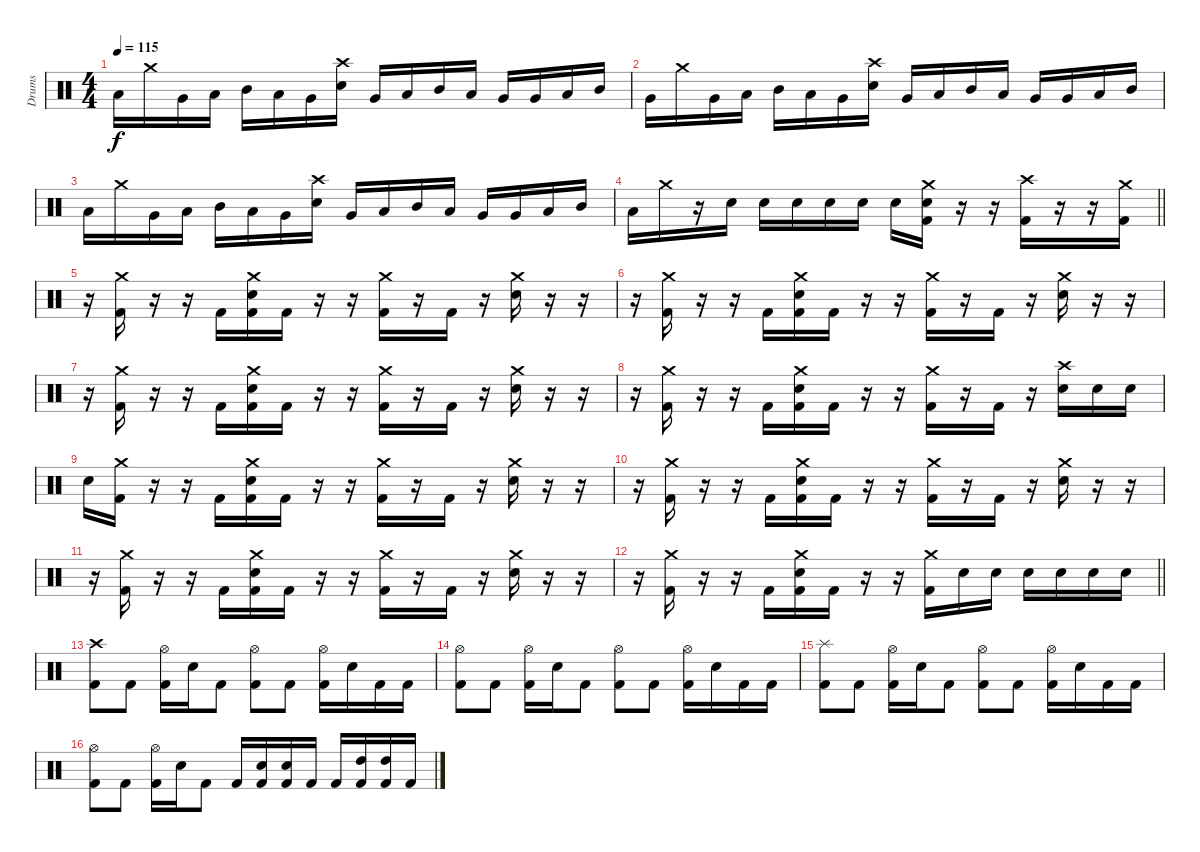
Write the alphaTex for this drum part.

\track ("Drums" "Drums") {instrument percussion}
\staff {score}
\articulation defaults
\ts (4 4)
\tempo 115
\clef neutral
\ks c "Low Floor Tom (hit)".16{dy f} "Crash medium (hit)".16 "Very Low Tom (hit)".16 "Low Tom (hit)".16 "Mid Tom (hit)".16 "Low Tom (hit)".16 "Very Low Tom (hit)".16
("Crash high (hit)" "Snare (hit) 2").16 "Very Low Tom (hit)".16 "Low Tom (hit)".16 "Mid Tom (hit)".16 "Low Tom (hit)".16 "Very Low Tom (hit)".16 "Very Low Tom (hit)".16 "Low Tom (hit)".16 "Mid Tom (hit)".16 |
"Very Low Tom (hit)".16 "Crash medium (hit)".16 "Very Low Tom (hit)".16 "Low Tom (hit)".16 "Mid Tom (hit)".16 "Low Tom (hit)".16 "Very Low Tom (hit)".16 ("Crash high (hit)" "Snare (hit) 2").16 "Very Low Tom (hit)".16 "Low Tom (hit)".16 "Mid Tom (hit)".16 "Low Tom (hit)".16 "Very Low Tom (hit)".16 "Very Low Tom (hit)".16 "Low Tom (hit)".16 "Mid Tom (hit)".16 |
"Low Tom (hit)".16 "Crash medium (hit)".16 "Very Low Tom (hit)".16 "Low Tom (hit)".16 "Mid Tom (hit)".16 "Low Tom (hit)".16 "Very Low Tom (hit)".16 ("Crash high (hit)" "Snare (hit) 2").16 "Very Low Tom (hit)".16 "Low Tom (hit)".16 "Mid Tom (hit)".16 "Low Tom (hit)".16 "Very Low Tom (hit)".16 "Very Low Tom (hit)".16 "Low Tom (hit)".16 "Mid Tom (hit)".16 |
\barLineRight lightlight "Low Tom (hit)".16 "Crash medium (hit)".16
r.16 "Snare (hit) 2".16 "Snare (hit) 2".16 "Snare (hit) 2".16 "Snare (hit) 2".16 "Snare (hit) 2".16 "Snare (hit) 2".16 ("Crash medium (hit)" "Snare (hit) 2" "Kick (hit) 2").16 r.16 r.16 ("Crash high (hit)" "Kick (hit) 2").16 r.16 r.16 ("Crash medium (hit)" "Kick (hit) 2").16 |
r.16 ("Crash medium (hit)" "Kick (hit) 2").16 r.16 r.16 "Kick (hit) 2".16 ("Crash medium (hit)" "Snare (hit) 2" "Kick (hit) 2").16 "Kick (hit) 2".16 r.16 r.16 ("Crash medium (hit)" "Kick (hit) 2").16 r.16 "Kick (hit) 2".16 r.16 ("Crash medium (hit)" "Snare (hit) 2").16 r.16 r.16 |
r.16 ("Crash medium (hit)" "Kick (hit) 2").16 r.16 r.16 "Kick (hit) 2".16 ("Crash medium (hit)" "Snare (hit) 2" "Kick (hit) 2").16 "Kick (hit) 2".16 r.16 r.16 ("Crash medium (hit)" "Kick (hit) 2").16 r.16 "Kick (hit) 2".16 r.16 ("Crash medium (hit)" "Snare (hit) 2").16 r.16 r.16 |
r.16 ("Crash medium (hit)" "Kick (hit) 2").16 r.16 r.16 "Kick (hit) 2".16 ("Crash medium (hit)" "Snare (hit) 2" "Kick (hit) 2").16 "Kick (hit) 2".16 r.16 r.16 ("Crash medium (hit)" "Kick (hit) 2").16 r.16 "Kick (hit) 2".16 r.16 ("Crash medium (hit)" "Snare (hit) 2").16 r.16 r.16 |
r.16 ("Crash medium (hit)" "Kick (hit) 2").16 r.16 r.16 "Kick (hit) 2".16 ("Crash medium (hit)" "Snare (hit) 2" "Kick (hit) 2").16 "Kick (hit) 2".16 r.16 r.16 ("Crash medium (hit)" "Kick (hit) 2").16 r.16 "Kick (hit) 2".16 r.16 ("Crash high (hit)" "Snare (hit) 2").16 "Snare (hit) 2".16 "Snare (hit) 2".16 |
"Snare (hit) 2".16 ("Crash medium (hit)" "Kick (hit) 2").16 r.16 r.16 "Kick (hit) 2".16 ("Crash medium (hit)" "Snare (hit) 2" "Kick (hit) 2").16 "Kick (hit) 2".16 r.16 r.16 ("Crash medium (hit)" "Kick (hit) 2").16 r.16 "Kick (hit) 2".16 r.16 ("Crash medium (hit)" "Snare (hit) 2").16 r.16 r.16 |
r.16 ("Crash medium (hit)" "Kick (hit) 2").16 r.16 r.16 "Kick (hit) 2".16 ("Crash medium (hit)" "Snare (hit) 2" "Kick (hit) 2").16 "Kick (hit) 2".16 r.16 r.16 ("Crash medium (hit)" "Kick (hit) 2").16 r.16 "Kick (hit) 2".16 r.16 ("Crash medium (hit)" "Snare (hit) 2").16 r.16 r.16 |
r.16 ("Crash medium (hit)" "Kick (hit) 2").16 r.16 r.16 "Kick (hit) 2".16 ("Crash medium (hit)" "Snare (hit) 2" "Kick (hit) 2").16 "Kick (hit) 2".16 r.16 r.16 ("Crash medium (hit)" "Kick (hit) 2").16 r.16 "Kick (hit) 2".16 r.16 ("Crash medium (hit)" "Snare (hit) 2").16 r.16 r.16 |
\barLineRight lightlight
r.16 ("Crash medium (hit)" "Kick (hit) 2").16 r.16 r.16 "Kick (hit) 2".16 ("Crash medium (hit)" "Snare (hit) 2" "Kick (hit) 2").16 "Kick (hit) 2".16 r.16 r.16 ("Crash medium (hit)" "Kick (hit) 2").16 "Snare (hit) 2".16 "Snare (hit) 2".16 "Snare (hit) 2".16 "Snare (hit) 2".16 "Snare (hit) 2".16 "Snare (hit) 2".16 |
("Crash high (hit)" "Kick (hit) 2").8 "Kick (hit) 2".8 ("Hi-Hat (open)" "Kick (hit) 2").16 "Snare (hit) 2".16 "Kick (hit) 2".8 ("Hi-Hat (open)" "Kick (hit) 2").8 "Kick (hit) 2".8 ("Hi-Hat (open)" "Kick (hit) 2").16 "Snare (hit) 2".16 "Kick (hit) 2".16 "Kick (hit) 2".16 |
("Hi-Hat (open)" "Kick (hit) 2").8 "Kick (hit) 2".8 ("Hi-Hat (open)" "Kick (hit) 2").16 "Snare (hit) 2".16 "Kick (hit) 2".8 ("Hi-Hat (open)" "Kick (hit) 2").8 "Kick (hit) 2".8 ("Hi-Hat (open)" "Kick (hit) 2").16 "Snare (hit) 2".16 "Kick (hit) 2".16 "Kick (hit) 2".16 |
("Splash (hit)" "Kick (hit) 2").8 "Kick (hit) 2".8 ("Hi-Hat (open)" "Kick (hit) 2").16 "Snare (hit) 2".16 "Kick (hit) 2".8 ("Hi-Hat (open)" "Kick (hit) 2").8 "Kick (hit) 2".8 ("Hi-Hat (open)" "Kick (hit) 2").16 "Snare (hit) 2".16 "Kick (hit) 2".16 "Kick (hit) 2".16 |
("Hi-Hat (open)" "Kick (hit) 2").8 "Kick (hit) 2".8 ("Hi-Hat (open)" "Kick (hit) 2").16 "Snare (hit) 2".16 "Kick (hit) 2".8 "Kick (hit) 2".16 ("Snare (hit) 2" "Kick (hit) 2").16 ("Snare (hit) 2" "Kick (hit) 2").16 "Kick (hit) 2".16 "Kick (hit) 2".16 ("High Tom (hit)" "Kick (hit) 2").16 ("High Tom (hit)" "Kick (hit) 2").16 "Kick (hit) 2".16
